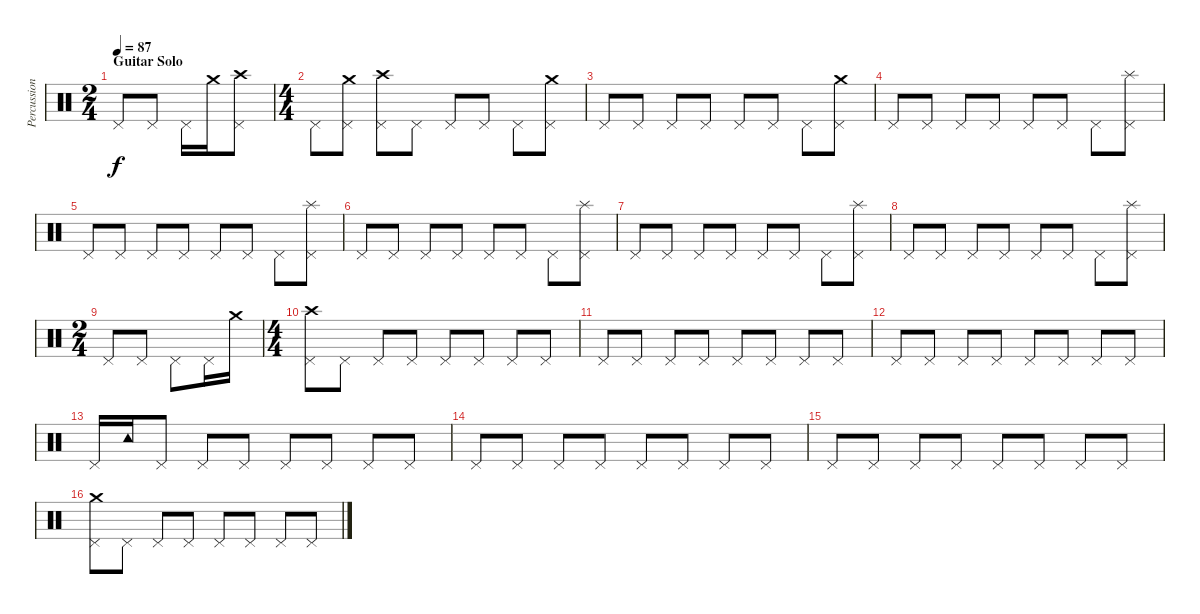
\track ("Percussion" "Percussion") {instrument percussion}
\staff {score}
\articulation defaults
\ts (2 4)
\section ("" "Guitar Solo")
\tempo 87
\clef neutral
\ks c "Pedal Hi-Hat (hit)".8{dy f} "Pedal Hi-Hat (hit)".8 "Pedal Hi-Hat (hit)".16 "Crash medium (hit)".16
("Crash high (hit)" "Pedal Hi-Hat (hit)").8 |
\ts (4 4)
"Pedal Hi-Hat (hit)".8 ("Crash medium (hit)" "Pedal Hi-Hat (hit)").8 ("Crash high (hit)" "Pedal Hi-Hat (hit)").8 "Pedal Hi-Hat (hit)".8 "Pedal Hi-Hat (hit)".8 "Pedal Hi-Hat (hit)".8 "Pedal Hi-Hat (hit)".8 ("Crash medium (hit)" "Pedal Hi-Hat (hit)").8 |
"Pedal Hi-Hat (hit)".8 "Pedal Hi-Hat (hit)".8 "Pedal Hi-Hat (hit)".8 "Pedal Hi-Hat (hit)".8 "Pedal Hi-Hat (hit)".8 "Pedal Hi-Hat (hit)".8 "Pedal Hi-Hat (hit)".8 ("Crash medium (hit)" "Pedal Hi-Hat (hit)").8 |
"Pedal Hi-Hat (hit)".8 "Pedal Hi-Hat (hit)".8 "Pedal Hi-Hat (hit)".8 "Pedal Hi-Hat (hit)".8 "Pedal Hi-Hat (hit)".8 "Pedal Hi-Hat (hit)".8 "Pedal Hi-Hat (hit)".8 ("Splash (hit)" "Pedal Hi-Hat (hit)").8 |
"Pedal Hi-Hat (hit)".8 "Pedal Hi-Hat (hit)".8 "Pedal Hi-Hat (hit)".8 "Pedal Hi-Hat (hit)".8 "Pedal Hi-Hat (hit)".8 "Pedal Hi-Hat (hit)".8 "Pedal Hi-Hat (hit)".8 ("Splash (hit)" "Pedal Hi-Hat (hit)").8 |
"Pedal Hi-Hat (hit)".8 "Pedal Hi-Hat (hit)".8 "Pedal Hi-Hat (hit)".8 "Pedal Hi-Hat (hit)".8 "Pedal Hi-Hat (hit)".8 "Pedal Hi-Hat (hit)".8 "Pedal Hi-Hat (hit)".8 ("Splash (hit)" "Pedal Hi-Hat (hit)").8 |
"Pedal Hi-Hat (hit)".8 "Pedal Hi-Hat (hit)".8 "Pedal Hi-Hat (hit)".8 "Pedal Hi-Hat (hit)".8 "Pedal Hi-Hat (hit)".8 "Pedal Hi-Hat (hit)".8 "Pedal Hi-Hat (hit)".8 ("Splash (hit)" "Pedal Hi-Hat (hit)").8 |
"Pedal Hi-Hat (hit)".8 "Pedal Hi-Hat (hit)".8 "Pedal Hi-Hat (hit)".8 "Pedal Hi-Hat (hit)".8 "Pedal Hi-Hat (hit)".8 "Pedal Hi-Hat (hit)".8 "Pedal Hi-Hat (hit)".8 ("Splash (hit)" "Pedal Hi-Hat (hit)").8 |
\ts (2 4)
"Pedal Hi-Hat (hit)".8 "Pedal Hi-Hat (hit)".8 "Pedal Hi-Hat (hit)".8 "Pedal Hi-Hat (hit)".16 "Crash medium (hit)".16 |
\ts (4 4)
("Crash high (hit)" "Pedal Hi-Hat (hit)").8 "Pedal Hi-Hat (hit)".8 "Pedal Hi-Hat (hit)".8 "Pedal Hi-Hat (hit)".8 "Pedal Hi-Hat (hit)".8 "Pedal Hi-Hat (hit)".8 "Pedal Hi-Hat (hit)".8 "Pedal Hi-Hat (hit)".8 |
"Pedal Hi-Hat (hit)".8 "Pedal Hi-Hat (hit)".8 "Pedal Hi-Hat (hit)".8 "Pedal Hi-Hat (hit)".8 "Pedal Hi-Hat (hit)".8 "Pedal Hi-Hat (hit)".8 "Pedal Hi-Hat (hit)".8 "Pedal Hi-Hat (hit)".8 |
"Pedal Hi-Hat (hit)".8 "Pedal Hi-Hat (hit)".8 "Pedal Hi-Hat (hit)".8 "Pedal Hi-Hat (hit)".8 "Pedal Hi-Hat (hit)".8 "Pedal Hi-Hat (hit)".8 "Pedal Hi-Hat (hit)".8 "Pedal Hi-Hat (hit)".8 |
"Pedal Hi-Hat (hit)".16 "Tambourine (hit)".16 "Pedal Hi-Hat (hit)".8 "Pedal Hi-Hat (hit)".8 "Pedal Hi-Hat (hit)".8 "Pedal Hi-Hat (hit)".8 "Pedal Hi-Hat (hit)".8 "Pedal Hi-Hat (hit)".8 "Pedal Hi-Hat (hit)".8 |
"Pedal Hi-Hat (hit)".8 "Pedal Hi-Hat (hit)".8 "Pedal Hi-Hat (hit)".8 "Pedal Hi-Hat (hit)".8 "Pedal Hi-Hat (hit)".8 "Pedal Hi-Hat (hit)".8 "Pedal Hi-Hat (hit)".8 "Pedal Hi-Hat (hit)".8 |
"Pedal Hi-Hat (hit)".8 "Pedal Hi-Hat (hit)".8 "Pedal Hi-Hat (hit)".8 "Pedal Hi-Hat (hit)".8 "Pedal Hi-Hat (hit)".8 "Pedal Hi-Hat (hit)".8 "Pedal Hi-Hat (hit)".8 "Pedal Hi-Hat (hit)".8 |
("Crash medium (hit)" "Pedal Hi-Hat (hit)").8 "Pedal Hi-Hat (hit)".8 "Pedal Hi-Hat (hit)".8 "Pedal Hi-Hat (hit)".8 "Pedal Hi-Hat (hit)".8 "Pedal Hi-Hat (hit)".8 "Pedal Hi-Hat (hit)".8 "Pedal Hi-Hat (hit)".8
